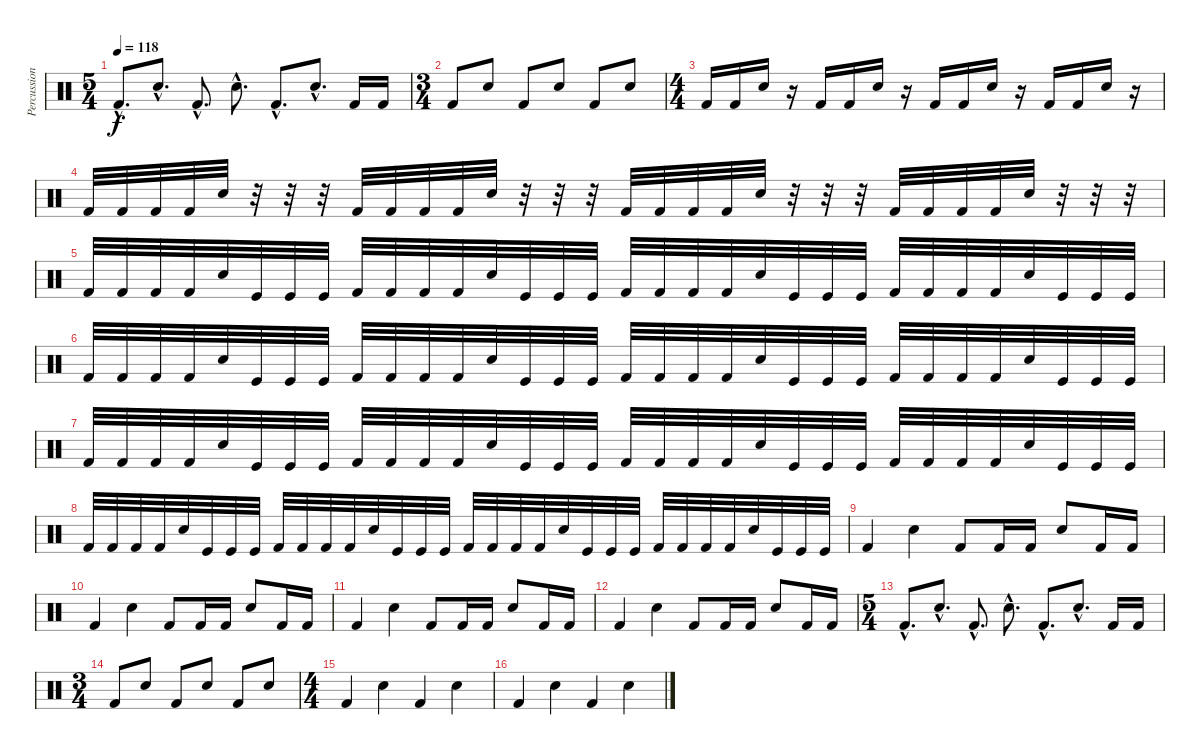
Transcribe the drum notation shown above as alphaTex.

\track ("Percussions" "Percussion") {instrument percussion}
\staff {score}
\articulation defaults
\ts (5 4)
\tempo 118
\clef neutral
\ks c "Kick (hit) 2"{hac}.8{d dy f} "Snare (hit) 2"{hac}.8{d} "Kick (hit) 2"{hac}.8{d} "Snare (hit) 2"{hac}.8{d} "Kick (hit) 2"{hac}.8{d} "Snare (hit) 2"{hac}.8{d} "Kick (hit) 2".16 "Kick (hit) 2".16
|
\ts (3 4)
"Kick (hit) 2".8 "Snare (hit) 2".8 "Kick (hit) 2".8 "Snare (hit) 2".8 "Kick (hit) 2".8 "Snare (hit) 2".8 |
\ts (4 4)
"Kick (hit) 2".16 "Kick (hit) 2".16 "Snare (hit) 2".16 r.16 "Kick (hit) 2".16 "Kick (hit) 2".16 "Snare (hit) 2".16 r.16 "Kick (hit) 2".16 "Kick (hit) 2".16 "Snare (hit) 2".16 r.16 "Kick (hit) 2".16 "Kick (hit) 2".16 "Snare (hit) 2".16 r.16 |
"Kick (hit) 2".32 "Kick (hit) 2".32 "Kick (hit) 2".32 "Kick (hit) 2".32 "Snare (hit) 2".32 r.32 r.32 r.32 "Kick (hit) 2".32 "Kick (hit) 2".32 "Kick (hit) 2".32 "Kick (hit) 2".32 "Snare (hit) 2".32 r.32 r.32 r.32 "Kick (hit) 2".32 "Kick (hit) 2".32 "Kick (hit) 2".32 "Kick (hit) 2".32 "Snare (hit) 2".32 r.32 r.32 r.32 "Kick (hit) 2".32 "Kick (hit) 2".32 "Kick (hit) 2".32 "Kick (hit) 2".32 "Snare (hit) 2".32 r.32 r.32 r.32 |
"Kick (hit) 2".32 "Kick (hit) 2".32 "Kick (hit) 2".32 "Kick (hit) 2".32 "Snare (hit) 2".32 "Kick (hit)".32 "Kick (hit)".32 "Kick (hit)".32 "Kick (hit) 2".32 "Kick (hit) 2".32 "Kick (hit) 2".32 "Kick (hit) 2".32 "Snare (hit) 2".32 "Kick (hit)".32 "Kick (hit)".32 "Kick (hit)".32 "Kick (hit) 2".32 "Kick (hit) 2".32 "Kick (hit) 2".32 "Kick (hit) 2".32 "Snare (hit) 2".32 "Kick (hit)".32 "Kick (hit)".32 "Kick (hit)".32 "Kick (hit) 2".32 "Kick (hit) 2".32 "Kick (hit) 2".32 "Kick (hit) 2".32 "Snare (hit) 2".32 "Kick (hit)".32 "Kick (hit)".32 "Kick (hit)".32 |
"Kick (hit) 2".32 "Kick (hit) 2".32 "Kick (hit) 2".32 "Kick (hit) 2".32 "Snare (hit) 2".32 "Kick (hit)".32 "Kick (hit)".32 "Kick (hit)".32 "Kick (hit) 2".32 "Kick (hit) 2".32 "Kick (hit) 2".32 "Kick (hit) 2".32 "Snare (hit) 2".32 "Kick (hit)".32 "Kick (hit)".32 "Kick (hit)".32 "Kick (hit) 2".32 "Kick (hit) 2".32 "Kick (hit) 2".32 "Kick (hit) 2".32 "Snare (hit) 2".32 "Kick (hit)".32 "Kick (hit)".32 "Kick (hit)".32 "Kick (hit) 2".32 "Kick (hit) 2".32 "Kick (hit) 2".32 "Kick (hit) 2".32 "Snare (hit) 2".32 "Kick (hit)".32 "Kick (hit)".32 "Kick (hit)".32 |
"Kick (hit) 2".32 "Kick (hit) 2".32 "Kick (hit) 2".32 "Kick (hit) 2".32 "Snare (hit) 2".32 "Kick (hit)".32 "Kick (hit)".32 "Kick (hit)".32 "Kick (hit) 2".32 "Kick (hit) 2".32 "Kick (hit) 2".32 "Kick (hit) 2".32 "Snare (hit) 2".32 "Kick (hit)".32 "Kick (hit)".32 "Kick (hit)".32 "Kick (hit) 2".32 "Kick (hit) 2".32 "Kick (hit) 2".32 "Kick (hit) 2".32 "Snare (hit) 2".32 "Kick (hit)".32 "Kick (hit)".32 "Kick (hit)".32 "Kick (hit) 2".32 "Kick (hit) 2".32 "Kick (hit) 2".32 "Kick (hit) 2".32 "Snare (hit) 2".32 "Kick (hit)".32 "Kick (hit)".32 "Kick (hit)".32 |
"Kick (hit) 2".32 "Kick (hit) 2".32 "Kick (hit) 2".32 "Kick (hit) 2".32 "Snare (hit) 2".32 "Kick (hit)".32 "Kick (hit)".32 "Kick (hit)".32 "Kick (hit) 2".32 "Kick (hit) 2".32 "Kick (hit) 2".32 "Kick (hit) 2".32 "Snare (hit) 2".32 "Kick (hit)".32 "Kick (hit)".32 "Kick (hit)".32 "Kick (hit) 2".32 "Kick (hit) 2".32 "Kick (hit) 2".32 "Kick (hit) 2".32 "Snare (hit) 2".32 "Kick (hit)".32 "Kick (hit)".32 "Kick (hit)".32 "Kick (hit) 2".32 "Kick (hit) 2".32 "Kick (hit) 2".32 "Kick (hit) 2".32 "Snare (hit) 2".32 "Kick (hit)".32 "Kick (hit)".32 "Kick (hit)".32 |
"Kick (hit) 2".4 "Snare (hit) 2".4 "Kick (hit) 2".8 "Kick (hit) 2".16 "Kick (hit) 2".16 "Snare (hit) 2".8 "Kick (hit) 2".16 "Kick (hit) 2".16 |
"Kick (hit) 2".4 "Snare (hit) 2".4 "Kick (hit) 2".8 "Kick (hit) 2".16 "Kick (hit) 2".16 "Snare (hit) 2".8 "Kick (hit) 2".16 "Kick (hit) 2".16 |
"Kick (hit) 2".4 "Snare (hit) 2".4 "Kick (hit) 2".8 "Kick (hit) 2".16 "Kick (hit) 2".16 "Snare (hit) 2".8 "Kick (hit) 2".16 "Kick (hit) 2".16 |
"Kick (hit) 2".4 "Snare (hit) 2".4 "Kick (hit) 2".8 "Kick (hit) 2".16 "Kick (hit) 2".16 "Snare (hit) 2".8 "Kick (hit) 2".16 "Kick (hit) 2".16 |
\ts (5 4)
"Kick (hit) 2"{hac}.8{d} "Snare (hit) 2"{hac}.8{d} "Kick (hit) 2"{hac}.8{d} "Snare (hit) 2"{hac}.8{d} "Kick (hit) 2"{hac}.8{d} "Snare (hit) 2"{hac}.8{d} "Kick (hit) 2".16 "Kick (hit) 2".16 |
\ts (3 4)
"Kick (hit) 2".8 "Snare (hit) 2".8 "Kick (hit) 2".8 "Snare (hit) 2".8 "Kick (hit) 2".8 "Snare (hit) 2".8 |
\ts (4 4)
"Kick (hit) 2".4 "Snare (hit) 2".4 "Kick (hit) 2".4 "Snare (hit) 2".4 |
"Kick (hit) 2".4 "Snare (hit) 2".4 "Kick (hit) 2".4 "Snare (hit) 2".4
